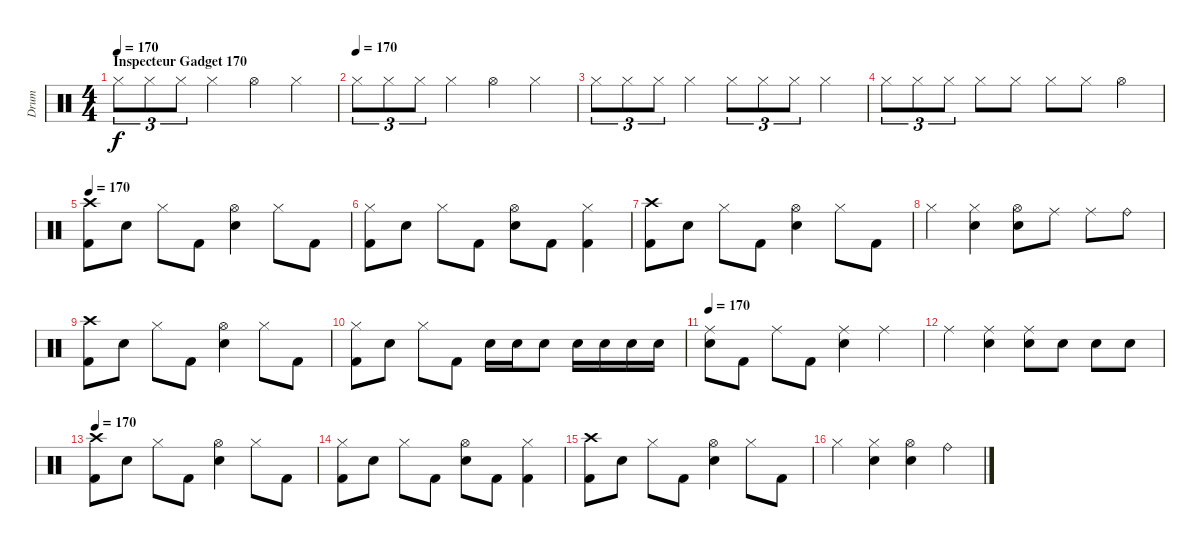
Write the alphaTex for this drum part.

\track ("Drum" "Drum") {instrument percussion}
\staff {score}
\articulation defaults
\ts (4 4)
\section ("" "Inspecteur Gadget 170")
\tempo 170
\clef neutral
\ks c "Hi-Hat (closed)".8{tu (3 2) dy f} "Hi-Hat (closed)".8{tu (3 2)} "Hi-Hat (closed)".8{tu (3 2)} "Hi-Hat (closed)".4 "Hi-Hat (open)".4 "Hi-Hat (closed)".4
|
\tempo (170)
"Hi-Hat (closed)".8{tu (3 2)} "Hi-Hat (closed)".8{tu (3 2)} "Hi-Hat (closed)".8{tu (3 2)} "Hi-Hat (closed)".4 "Hi-Hat (open)".4 "Hi-Hat (closed)".4 |
"Hi-Hat (closed)".8{tu (3 2)} "Hi-Hat (closed)".8{tu (3 2)} "Hi-Hat (closed)".8{tu (3 2)} "Hi-Hat (closed)".4 "Hi-Hat (closed)".8{tu (3 2)} "Hi-Hat (closed)".8{tu (3 2)} "Hi-Hat (closed)".8{tu (3 2)} "Hi-Hat (closed)".4 |
"Hi-Hat (closed)".8{tu (3 2)} "Hi-Hat (closed)".8{tu (3 2)} "Hi-Hat (closed)".8{tu (3 2)} "Hi-Hat (closed)".8 "Hi-Hat (closed)".8 "Hi-Hat (closed)".8 "Hi-Hat (closed)".8 "Hi-Hat (open)".4 |
\tempo 170
("Crash high (hit)" "Kick (hit) 2").8 "Electric Snare (hit)".8 "Hi-Hat (closed)".8 "Kick (hit) 2".8 ("Hi-Hat (open)" "Electric Snare (hit)").4 "Hi-Hat (closed)".8 "Kick (hit) 2".8 |
("Hi-Hat (closed)" "Kick (hit) 2").8 "Electric Snare (hit)".8 "Hi-Hat (closed)".8 "Kick (hit) 2".8 ("Hi-Hat (open)" "Electric Snare (hit)").8 "Kick (hit) 2".8 ("Hi-Hat (closed)" "Kick (hit) 2").4 |
("Crash high (hit)" "Kick (hit) 2").8 "Electric Snare (hit)".8 "Hi-Hat (closed)".8 "Kick (hit) 2".8 ("Hi-Hat (open)" "Electric Snare (hit)").4 "Hi-Hat (closed)".8 "Kick (hit) 2".8 |
"Hi-Hat (closed)".4 ("Hi-Hat (closed)" "Electric Snare (hit)").4 ("Hi-Hat (open)" "Electric Snare (hit)").8 "Ride (middle)".8 "Ride (middle)".8 "Ride (bell)".8 |
("Crash high (hit)" "Kick (hit) 2").8 "Electric Snare (hit)".8 "Hi-Hat (closed)".8 "Kick (hit) 2".8 ("Hi-Hat (open)" "Electric Snare (hit)").4 "Hi-Hat (closed)".8 "Kick (hit) 2".8 |
("Hi-Hat (closed)" "Kick (hit) 2").8 "Electric Snare (hit)".8 "Hi-Hat (closed)".8 "Kick (hit) 2".8 "Electric Snare (hit)".16 "Electric Snare (hit)".16 "Electric Snare (hit)".8 "Electric Snare (hit)".16 "Electric Snare (hit)".16 "Electric Snare (hit)".16 "Electric Snare (hit)".16 |
\tempo 170
("Ride (middle)" "Electric Snare (hit)").8 "Kick (hit) 2".8 "Ride (middle)".8 "Kick (hit) 2".8 ("Ride (middle)" "Electric Snare (hit)").4 "Ride (middle)".4 |
"Ride (middle)".4 ("Ride (middle)" "Electric Snare (hit)").4 ("Ride (middle)" "Electric Snare (hit)").8 "Electric Snare (hit)".8 "Electric Snare (hit)".8 "Electric Snare (hit)".8 |
\tempo 170
("Crash high (hit)" "Kick (hit) 2").8 "Electric Snare (hit)".8 "Hi-Hat (closed)".8 "Kick (hit) 2".8 ("Hi-Hat (open)" "Electric Snare (hit)").4 "Hi-Hat (closed)".8 "Kick (hit) 2".8 |
("Hi-Hat (closed)" "Kick (hit) 2").8 "Electric Snare (hit)".8 "Hi-Hat (closed)".8 "Kick (hit) 2".8 ("Hi-Hat (open)" "Electric Snare (hit)").8 "Kick (hit) 2".8 ("Hi-Hat (closed)" "Kick (hit) 2").4 |
("Crash high (hit)" "Kick (hit) 2").8 "Electric Snare (hit)".8 "Hi-Hat (closed)".8 "Kick (hit) 2".8 ("Hi-Hat (open)" "Electric Snare (hit)").4 "Hi-Hat (closed)".8 "Kick (hit) 2".8 |
"Hi-Hat (closed)".4 ("Hi-Hat (closed)" "Electric Snare (hit)").4 ("Hi-Hat (open)" "Electric Snare (hit)").4 "Ride (bell)".4
